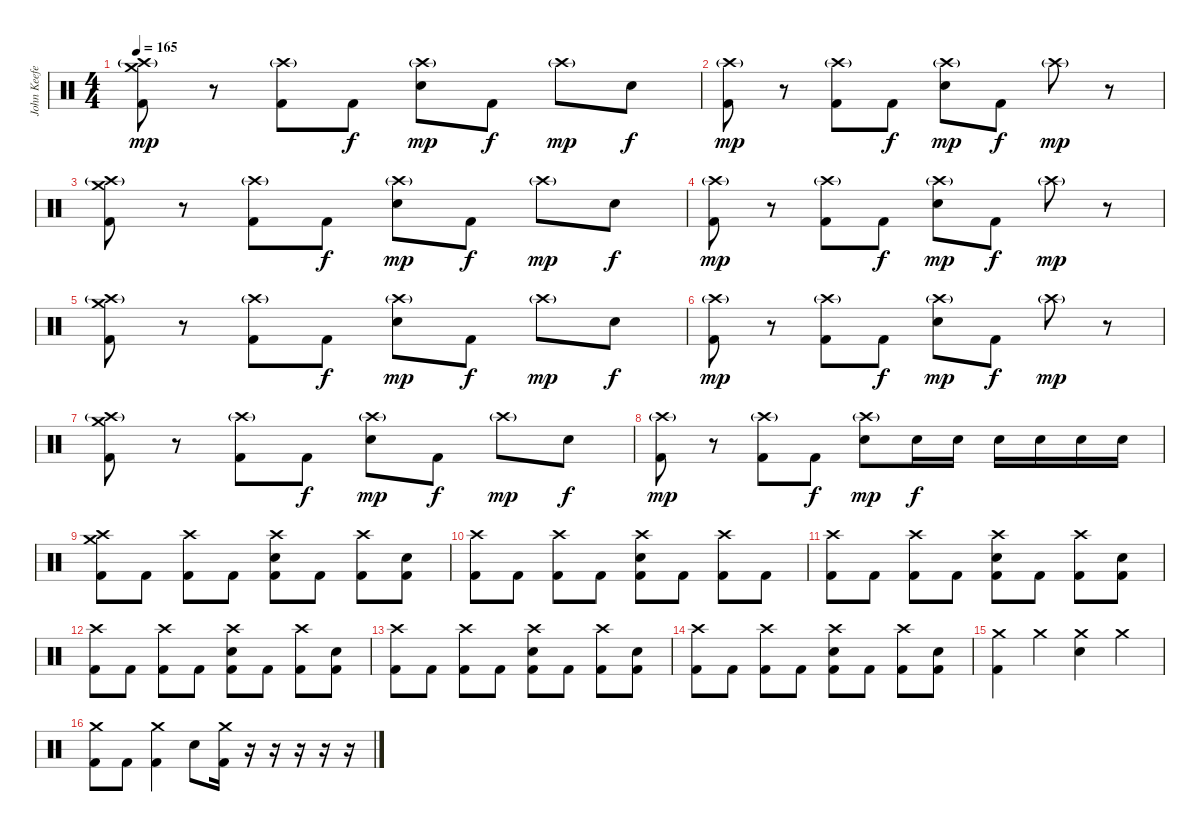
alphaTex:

\track ("John Keefe (Drums)" "John Keefe") {instrument percussion}
\staff {score}
\articulation defaults
\ts (4 4)
\tempo 165
\clef neutral
\ks c
("Crash high (hit)"{g} "Crash medium (hit)" "Kick (hit) 2").8{dy mp} r.8 ("Crash high (hit)"{g} "Kick (hit) 2").8 "Kick (hit) 2".8{dy f} ("Crash high (hit)"{g} "Electric Snare (hit)").8{dy mp} "Kick (hit) 2".8{dy f} "Crash high (hit)"{g}.8{dy mp} "Electric Snare (hit)".8{dy f} |
("Crash high (hit)"{g} "Kick (hit) 2").8{dy mp} r.8 ("Crash high (hit)"{g} "Kick (hit) 2").8 "Kick (hit) 2".8{dy f} ("Crash high (hit)"{g} "Electric Snare (hit)").8{dy mp} "Kick (hit) 2".8{dy f} "Crash high (hit)"{g}.8{dy mp} r.8 |
("Crash high (hit)"{g} "Crash medium (hit)" "Kick (hit) 2").8 r.8 ("Crash high (hit)"{g} "Kick (hit) 2").8 "Kick (hit) 2".8{dy f} ("Crash high (hit)"{g} "Electric Snare (hit)").8{dy mp} "Kick (hit) 2".8{dy f} "Crash high (hit)"{g}.8{dy mp} "Electric Snare (hit)".8{dy f} |
("Crash high (hit)"{g} "Kick (hit) 2").8{dy mp} r.8 ("Crash high (hit)"{g} "Kick (hit) 2").8 "Kick (hit) 2".8{dy f} ("Crash high (hit)"{g} "Electric Snare (hit)").8{dy mp} "Kick (hit) 2".8{dy f} "Crash high (hit)"{g}.8{dy mp} r.8 |
("Crash high (hit)"{g} "Crash medium (hit)" "Kick (hit) 2").8 r.8 ("Crash high (hit)"{g} "Kick (hit) 2").8 "Kick (hit) 2".8{dy f} ("Crash high (hit)"{g} "Electric Snare (hit)").8{dy mp} "Kick (hit) 2".8{dy f} "Crash high (hit)"{g}.8{dy mp} "Electric Snare (hit)".8{dy f} |
("Crash high (hit)"{g} "Kick (hit) 2").8{dy mp} r.8 ("Crash high (hit)"{g} "Kick (hit) 2").8 "Kick (hit) 2".8{dy f} ("Crash high (hit)"{g} "Electric Snare (hit)").8{dy mp} "Kick (hit) 2".8{dy f} "Crash high (hit)"{g}.8{dy mp} r.8 |
("Crash high (hit)"{g} "Crash medium (hit)" "Kick (hit) 2").8 r.8 ("Crash high (hit)"{g} "Kick (hit) 2").8 "Kick (hit) 2".8{dy f} ("Crash high (hit)"{g} "Electric Snare (hit)").8{dy mp} "Kick (hit) 2".8{dy f} "Crash high (hit)"{g}.8{dy mp} "Electric Snare (hit)".8{dy f} |
("Crash high (hit)"{g} "Kick (hit) 2").8{dy mp} r.8 ("Crash high (hit)"{g} "Kick (hit) 2").8 "Kick (hit) 2".8{dy f} ("Crash high (hit)"{g} "Electric Snare (hit)").8{dy mp} "Electric Snare (hit)".16{dy f} "Electric Snare (hit)".16 "Electric Snare (hit)".16 "Electric Snare (hit)".16 "Electric Snare (hit)".16 "Electric Snare (hit)".16 |
("Crash medium (hit)" "Crash high (hit)" "Kick (hit) 2").8 "Kick (hit) 2".8 ("Crash high (hit)" "Kick (hit) 2").8 "Kick (hit) 2".8 ("Crash high (hit)" "Electric Snare (hit)" "Kick (hit) 2").8 "Kick (hit) 2".8 ("Crash high (hit)" "Kick (hit) 2").8 ("Electric Snare (hit)" "Kick (hit) 2").8 |
("Crash high (hit)" "Kick (hit) 2").8 "Kick (hit) 2".8 ("Crash high (hit)" "Kick (hit) 2").8 "Kick (hit) 2".8 ("Crash high (hit)" "Electric Snare (hit)" "Kick (hit) 2").8 "Kick (hit) 2".8 ("Crash high (hit)" "Kick (hit) 2").8 "Kick (hit) 2".8 |
("Crash high (hit)" "Kick (hit) 2").8 "Kick (hit) 2".8 ("Crash high (hit)" "Kick (hit) 2").8 "Kick (hit) 2".8 ("Crash high (hit)" "Electric Snare (hit)" "Kick (hit) 2").8 "Kick (hit) 2".8 ("Crash high (hit)" "Kick (hit) 2").8 ("Electric Snare (hit)" "Kick (hit) 2").8 |
("Crash high (hit)" "Kick (hit) 2").8 "Kick (hit) 2".8 ("Crash high (hit)" "Kick (hit) 2").8 "Kick (hit) 2".8 ("Crash high (hit)" "Electric Snare (hit)" "Kick (hit) 2").8 "Kick (hit) 2".8 ("Crash high (hit)" "Kick (hit) 2").8 ("Electric Snare (hit)" "Kick (hit) 2").8 |
("Crash high (hit)" "Kick (hit) 2").8 "Kick (hit) 2".8 ("Crash high (hit)" "Kick (hit) 2").8 "Kick (hit) 2".8 ("Crash high (hit)" "Electric Snare (hit)" "Kick (hit) 2").8 "Kick (hit) 2".8 ("Crash high (hit)" "Kick (hit) 2").8 ("Electric Snare (hit)" "Kick (hit) 2").8 |
("Crash high (hit)" "Kick (hit) 2").8 "Kick (hit) 2".8 ("Crash high (hit)" "Kick (hit) 2").8 "Kick (hit) 2".8 ("Crash high (hit)" "Electric Snare (hit)" "Kick (hit) 2").8 "Kick (hit) 2".8 ("Crash high (hit)" "Kick (hit) 2").8 ("Electric Snare (hit)" "Kick (hit) 2").8 |
("Crash medium (hit)" "Kick (hit) 2").4 "Crash medium (hit)".4 ("Crash medium (hit)" "Electric Snare (hit)").4 "Crash medium (hit)".4 |
("Crash medium (hit)" "Kick (hit) 2").8 "Kick (hit) 2".8 ("Crash medium (hit)" "Kick (hit) 2").4 "Electric Snare (hit)".8 ("Crash medium (hit)" "Kick (hit) 2").16 r.16 r.16 r.16 r.16 r.16
